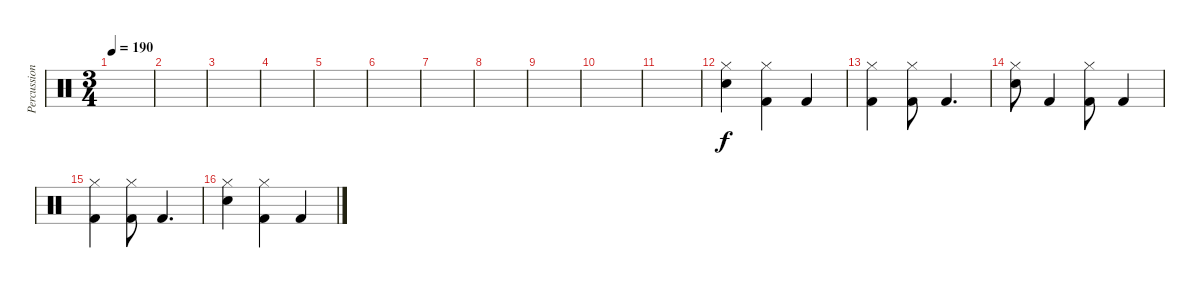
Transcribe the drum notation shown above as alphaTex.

\track ("Percussion" "Percussion") {instrument percussion}
\staff {score}
\articulation defaults
\ts (3 4)
\tempo 190
\clef neutral
\ks c
|
|
|
|
|
|
|
|
|
|
|
("Snare (hit) 2" "Hi-Hat (closed)").4 ("Kick (hit) 2" "Hi-Hat (closed)").4 "Kick (hit) 2".4 |
("Kick (hit) 2" "Hi-Hat (closed)").4 ("Kick (hit) 2" "Hi-Hat (closed)").8 "Kick (hit) 2".4{d} |
("Snare (hit) 2" "Hi-Hat (closed)").8 "Kick (hit) 2".4 ("Kick (hit) 2" "Hi-Hat (closed)").8 "Kick (hit) 2".4 |
("Kick (hit) 2" "Hi-Hat (closed)").4 ("Kick (hit) 2" "Hi-Hat (closed)").8 "Kick (hit) 2".4{d} |
("Snare (hit) 2" "Hi-Hat (closed)").4 ("Kick (hit) 2" "Hi-Hat (closed)").4 "Kick (hit) 2".4
